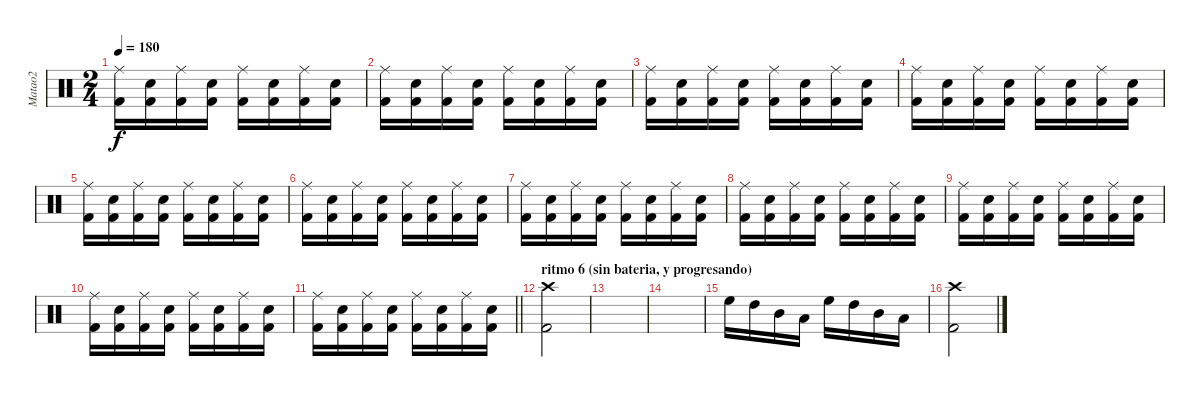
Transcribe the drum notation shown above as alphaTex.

\track ("Matao2" "Matao2") {instrument percussion}
\staff {score}
\articulation defaults
\ts (2 4)
\tempo 180
\clef neutral
\ks c
("Kick (hit) 2" "Ride (middle)").16{dy f} ("Kick (hit) 2" "Electric Snare (hit)").16 ("Kick (hit) 2" "Ride (middle)").16 ("Kick (hit) 2" "Electric Snare (hit)").16 ("Kick (hit) 2" "Ride (middle)").16 ("Kick (hit) 2" "Electric Snare (hit)").16 ("Kick (hit) 2" "Ride (middle)").16 ("Kick (hit) 2" "Electric Snare (hit)").16 |
("Kick (hit) 2" "Ride (middle)").16 ("Kick (hit) 2" "Electric Snare (hit)").16 ("Kick (hit) 2" "Ride (middle)").16 ("Kick (hit) 2" "Electric Snare (hit)").16 ("Kick (hit) 2" "Ride (middle)").16 ("Kick (hit) 2" "Electric Snare (hit)").16 ("Kick (hit) 2" "Ride (middle)").16 ("Kick (hit) 2" "Electric Snare (hit)").16 |
("Kick (hit) 2" "Ride (middle)").16 ("Kick (hit) 2" "Electric Snare (hit)").16 ("Kick (hit) 2" "Ride (middle)").16 ("Kick (hit) 2" "Electric Snare (hit)").16 ("Kick (hit) 2" "Ride (middle)").16 ("Kick (hit) 2" "Electric Snare (hit)").16 ("Kick (hit) 2" "Ride (middle)").16 ("Kick (hit) 2" "Electric Snare (hit)").16 |
("Kick (hit) 2" "Ride (middle)").16 ("Kick (hit) 2" "Electric Snare (hit)").16 ("Kick (hit) 2" "Ride (middle)").16 ("Kick (hit) 2" "Electric Snare (hit)").16 ("Kick (hit) 2" "Ride (middle)").16 ("Kick (hit) 2" "Electric Snare (hit)").16 ("Kick (hit) 2" "Ride (middle)").16 ("Kick (hit) 2" "Electric Snare (hit)").16 |
("Kick (hit) 2" "Ride (middle)").16 ("Kick (hit) 2" "Electric Snare (hit)").16 ("Kick (hit) 2" "Ride (middle)").16 ("Kick (hit) 2" "Electric Snare (hit)").16 ("Kick (hit) 2" "Ride (middle)").16 ("Kick (hit) 2" "Electric Snare (hit)").16 ("Kick (hit) 2" "Ride (middle)").16 ("Kick (hit) 2" "Electric Snare (hit)").16 |
("Kick (hit) 2" "Ride (middle)").16 ("Kick (hit) 2" "Electric Snare (hit)").16 ("Kick (hit) 2" "Ride (middle)").16 ("Kick (hit) 2" "Electric Snare (hit)").16 ("Kick (hit) 2" "Ride (middle)").16 ("Kick (hit) 2" "Electric Snare (hit)").16 ("Kick (hit) 2" "Ride (middle)").16 ("Kick (hit) 2" "Electric Snare (hit)").16 |
("Kick (hit) 2" "Ride (middle)").16 ("Kick (hit) 2" "Electric Snare (hit)").16 ("Kick (hit) 2" "Ride (middle)").16 ("Kick (hit) 2" "Electric Snare (hit)").16 ("Kick (hit) 2" "Ride (middle)").16 ("Kick (hit) 2" "Electric Snare (hit)").16 ("Kick (hit) 2" "Ride (middle)").16 ("Kick (hit) 2" "Electric Snare (hit)").16 |
("Kick (hit) 2" "Ride (middle)").16 ("Kick (hit) 2" "Electric Snare (hit)").16 ("Kick (hit) 2" "Ride (middle)").16 ("Kick (hit) 2" "Electric Snare (hit)").16 ("Kick (hit) 2" "Ride (middle)").16 ("Kick (hit) 2" "Electric Snare (hit)").16 ("Kick (hit) 2" "Ride (middle)").16 ("Kick (hit) 2" "Electric Snare (hit)").16 |
("Kick (hit) 2" "Ride (middle)").16 ("Kick (hit) 2" "Electric Snare (hit)").16 ("Kick (hit) 2" "Ride (middle)").16 ("Kick (hit) 2" "Electric Snare (hit)").16 ("Kick (hit) 2" "Ride (middle)").16 ("Kick (hit) 2" "Electric Snare (hit)").16 ("Kick (hit) 2" "Ride (middle)").16 ("Kick (hit) 2" "Electric Snare (hit)").16 |
("Kick (hit) 2" "Ride (middle)").16 ("Kick (hit) 2" "Electric Snare (hit)").16 ("Kick (hit) 2" "Ride (middle)").16 ("Kick (hit) 2" "Electric Snare (hit)").16 ("Kick (hit) 2" "Ride (middle)").16 ("Kick (hit) 2" "Electric Snare (hit)").16 ("Kick (hit) 2" "Ride (middle)").16 ("Kick (hit) 2" "Electric Snare (hit)").16 |
\barLineRight lightlight
("Kick (hit) 2" "Ride (middle)").16 ("Kick (hit) 2" "Electric Snare (hit)").16 ("Kick (hit) 2" "Ride (middle)").16 ("Kick (hit) 2" "Electric Snare (hit)").16 ("Kick (hit) 2" "Ride (middle)").16 ("Kick (hit) 2" "Electric Snare (hit)").16 ("Kick (hit) 2" "Ride (middle)").16 ("Kick (hit) 2" "Electric Snare (hit)").16 |
\section ("" "ritmo 6 (sin bateria, y progresando)")
("Kick (hit) 2" "Crash high (hit)").2 |
|
|
"High Floor Tom (hit)".16 "High Tom (hit)".16 "Mid Tom (hit)".16 "Low Tom (hit)".16 "High Floor Tom (hit)".16 "High Tom (hit)".16 "Mid Tom (hit)".16 "Low Tom (hit)".16 |
("Kick (hit) 2" "Crash high (hit)").2
